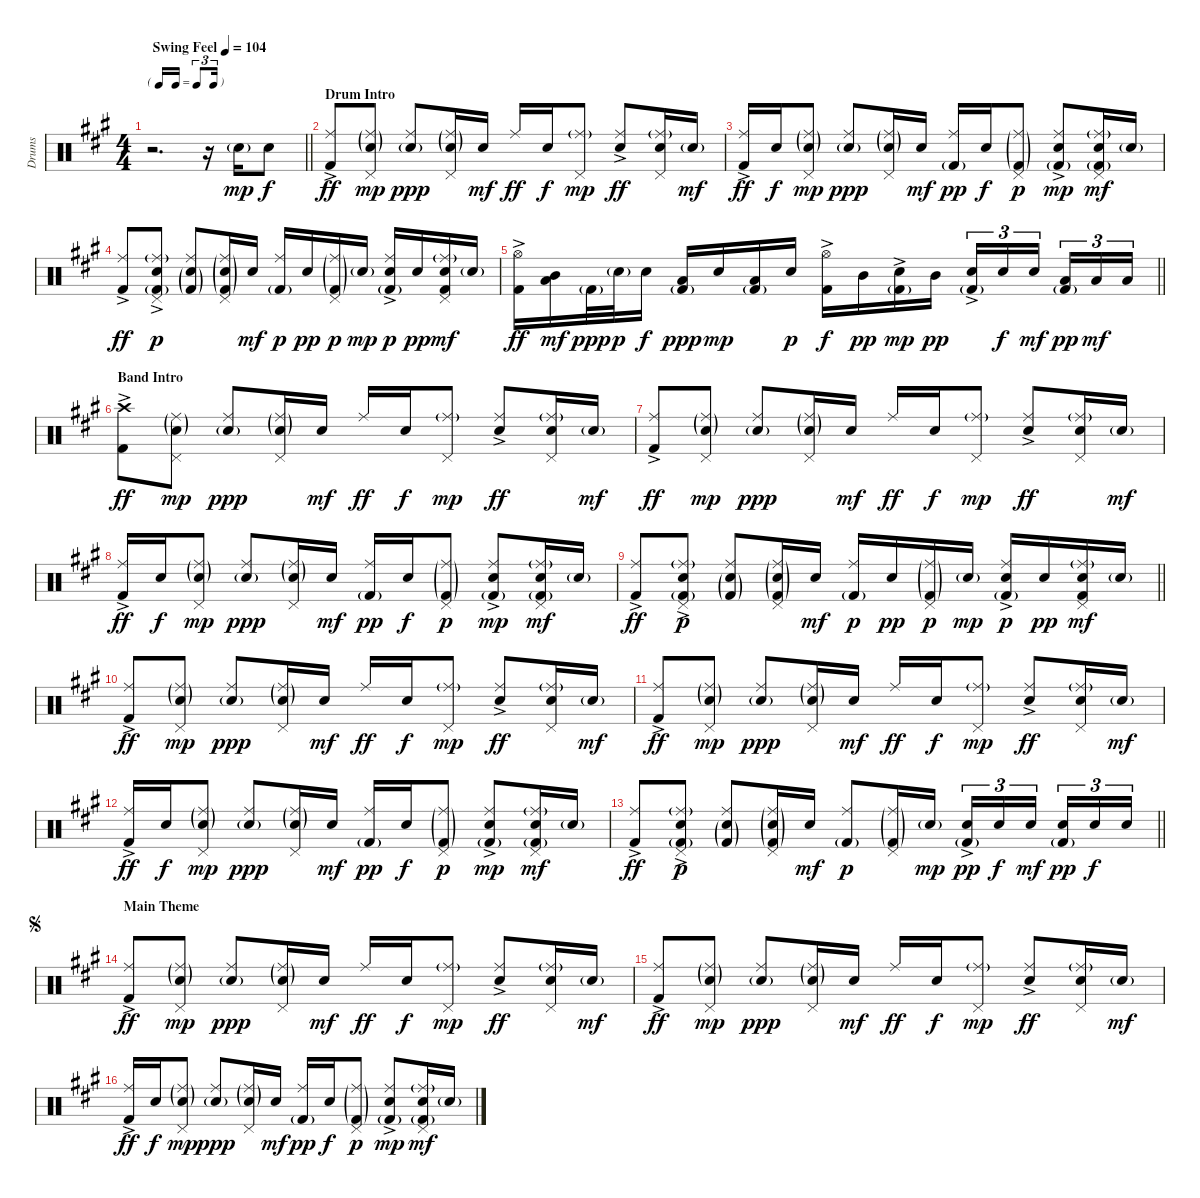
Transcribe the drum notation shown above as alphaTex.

\track ("Drums" "Drums") {instrument percussion}
\staff {score}
\articulation defaults
\ts (4 4)
\tf triplet16th
\tempo (104 "Swing Feel")
\clef neutral
\barLineRight lightlight
\ks a
r.2{d dy mp} r.16 "Snare (hit) 2"{g}.16 "Snare (hit) 2".8{dy f} |
\section ("" "Drum Intro")
("Ride (middle)" "Kick (hit) 2"{ac}).8{dy ff} ("Ride (middle)"{g} "Pedal Hi-Hat (hit)" "Snare (hit) 2"{g}).8{dy mp} ("Ride (middle)" "Snare (hit) 2"{g}).8{dy ppp} ("Ride (middle)"{g} "Pedal Hi-Hat (hit)" "Snare (hit) 2"{g}).16 "Snare (hit) 2".16{dy mf} "Ride (middle)".16{dy ff} "Snare (hit) 2".16{dy f} ("Ride (middle)"{g} "Pedal Hi-Hat (hit)").8{dy mp} ("Ride (middle)" "Snare (hit) 2"{ac}).8{dy ff} ("Ride (middle)"{g} "Pedal Hi-Hat (hit)" "Snare (hit) 2").16 "Snare (hit) 2"{g}.16{dy mf} |
("Ride (middle)" "Kick (hit) 2"{ac}).16{dy ff} "Snare (hit) 2".16{dy f} ("Ride (middle)"{g} "Pedal Hi-Hat (hit)" "Snare (hit) 2"{g}).8{dy mp} ("Ride (middle)" "Snare (hit) 2"{g}).8{dy ppp} ("Ride (middle)"{g} "Pedal Hi-Hat (hit)" "Snare (hit) 2"{g}).16 "Snare (hit) 2".16{dy mf} ("Ride (middle)" "Kick (hit) 2"{g}).16{dy pp} "Snare (hit) 2".16{dy f} ("Ride (middle)"{g} "Pedal Hi-Hat (hit)" "Kick (hit) 2"{g}).8{dy p} ("Ride (middle)" "Snare (hit) 2"{ac} "Kick (hit) 2"{g}).8{dy mp} ("Ride (middle)"{g} "Pedal Hi-Hat (hit)" "Snare (hit) 2" "Kick (hit) 2"{g}).16{dy mf} "Snare (hit) 2"{g}.16 |
("Ride (middle)" "Kick (hit) 2"{ac}).8{dy ff} ("Ride (middle)"{g} "Pedal Hi-Hat (hit)" "Snare (hit) 2"{ac} "Kick (hit) 2"{g}).8{dy p} ("Ride (middle)" "Snare (hit) 2"{g} "Kick (hit) 2"{g}).8 ("Ride (middle)"{g} "Pedal Hi-Hat (hit)" "Snare (hit) 2"{g} "Kick (hit) 2"{g}).16 "Snare (hit) 2".16{dy mf} ("Ride (middle)" "Kick (hit) 2"{g}).16{dy p} "Snare (hit) 2".16{dy pp} ("Ride (middle)"{g} "Pedal Hi-Hat (hit)" "Kick (hit) 2"{g}).16{dy p} "Snare (hit) 2"{g}.16{dy mp} ("Ride (middle)" "Snare (hit) 2"{ac} "Kick (hit) 2"{g}).16{dy p} "Snare (hit) 2".16{dy pp} ("Ride (middle)"{g} "Pedal Hi-Hat (hit)" "Snare (hit) 2" "Kick (hit) 2").16{dy mf} "Snare (hit) 2"{g}.16 |
\barLineRight lightlight
("Hi-Hat (open)" "Kick (hit) 2"{ac}).16{dy ff} ("Mid Tom (hit)" "Low Tom (hit)").16{dy mf} "Kick (hit) 2"{g}.32{dy ppp} "Snare (hit) 2"{g}.32{dy p} "Snare (hit) 2".16{dy f} ("Low Floor Tom (hit)" "Kick (hit) 2"{g}).16{dy ppp} "Snare (hit) 2".16{dy mp} ("Low Tom (hit)" "Kick (hit) 2"{g}).16 "Snare (hit) 2".16{dy p} ("Hi-Hat (open)" "Kick (hit) 2"{ac}).16{dy f} "Mid Tom (hit)".16{dy pp} ("Snare (hit) 2"{ac} "Kick (hit) 2"{g}).16{dy mp} "Mid Tom (hit)".16{dy pp} ("Snare (hit) 2"{ac} "Kick (hit) 2"{g}).16{tu (3 2)} "Snare (hit) 2".16{tu (3 2) dy f} "Snare (hit) 2".16{tu (3 2) dy mf beam splitsecondary} ("Low Tom (hit)" "Kick (hit) 2"{g}).16{tu (3 2) dy pp} "Low Floor Tom (hit)".16{tu (3 2) dy mf} "Low Floor Tom (hit)".16{tu (3 2)} |
\section ("" "Band Intro")
("Crash high (hit)" "Kick (hit) 2"{ac}).8{dy ff} ("Ride (middle)"{g} "Pedal Hi-Hat (hit)" "Snare (hit) 2"{g}).8{dy mp} ("Ride (middle)" "Snare (hit) 2"{g}).8{dy ppp} ("Ride (middle)"{g} "Pedal Hi-Hat (hit)" "Snare (hit) 2"{g}).16 "Snare (hit) 2".16{dy mf} "Ride (middle)".16{dy ff} "Snare (hit) 2".16{dy f} ("Ride (middle)"{g} "Pedal Hi-Hat (hit)").8{dy mp} ("Ride (middle)" "Snare (hit) 2"{ac}).8{dy ff} ("Ride (middle)"{g} "Pedal Hi-Hat (hit)" "Snare (hit) 2").16 "Snare (hit) 2"{g}.16{dy mf} |
("Ride (middle)" "Kick (hit) 2"{ac}).8{dy ff} ("Ride (middle)"{g} "Pedal Hi-Hat (hit)" "Snare (hit) 2"{g}).8{dy mp} ("Ride (middle)" "Snare (hit) 2"{g}).8{dy ppp} ("Ride (middle)"{g} "Pedal Hi-Hat (hit)" "Snare (hit) 2"{g}).16 "Snare (hit) 2".16{dy mf} "Ride (middle)".16{dy ff} "Snare (hit) 2".16{dy f} ("Ride (middle)"{g} "Pedal Hi-Hat (hit)").8{dy mp} ("Ride (middle)" "Snare (hit) 2"{ac}).8{dy ff} ("Ride (middle)"{g} "Pedal Hi-Hat (hit)" "Snare (hit) 2").16 "Snare (hit) 2"{g}.16{dy mf} |
("Ride (middle)" "Kick (hit) 2"{ac}).16{dy ff} "Snare (hit) 2".16{dy f} ("Ride (middle)"{g} "Pedal Hi-Hat (hit)" "Snare (hit) 2"{g}).8{dy mp} ("Ride (middle)" "Snare (hit) 2"{g}).8{dy ppp} ("Ride (middle)"{g} "Pedal Hi-Hat (hit)" "Snare (hit) 2"{g}).16 "Snare (hit) 2".16{dy mf} ("Ride (middle)" "Kick (hit) 2"{g}).16{dy pp} "Snare (hit) 2".16{dy f} ("Ride (middle)"{g} "Pedal Hi-Hat (hit)" "Kick (hit) 2"{g}).8{dy p} ("Ride (middle)" "Snare (hit) 2"{ac} "Kick (hit) 2"{g}).8{dy mp} ("Ride (middle)"{g} "Pedal Hi-Hat (hit)" "Snare (hit) 2" "Kick (hit) 2"{g}).16{dy mf} "Snare (hit) 2"{g}.16 |
\barLineRight lightlight
("Ride (middle)" "Kick (hit) 2"{ac}).8{dy ff} ("Ride (middle)"{g} "Pedal Hi-Hat (hit)" "Snare (hit) 2"{ac} "Kick (hit) 2"{g}).8{dy p} ("Ride (middle)" "Snare (hit) 2"{g} "Kick (hit) 2"{g}).8 ("Ride (middle)"{g} "Pedal Hi-Hat (hit)" "Snare (hit) 2"{g} "Kick (hit) 2"{g}).16 "Snare (hit) 2".16{dy mf} ("Ride (middle)" "Kick (hit) 2"{g}).16{dy p} "Snare (hit) 2".16{dy pp} ("Ride (middle)"{g} "Pedal Hi-Hat (hit)" "Kick (hit) 2"{g}).16{dy p} "Snare (hit) 2"{g}.16{dy mp} ("Ride (middle)" "Snare (hit) 2"{ac} "Kick (hit) 2"{g}).16{dy p} "Snare (hit) 2".16{dy pp} ("Ride (middle)"{g} "Pedal Hi-Hat (hit)" "Snare (hit) 2" "Kick (hit) 2").16{dy mf} "Snare (hit) 2"{g}.16 |
("Ride (middle)" "Kick (hit) 2"{ac}).8{dy ff} ("Ride (middle)"{g} "Pedal Hi-Hat (hit)" "Snare (hit) 2"{g}).8{dy mp} ("Ride (middle)" "Snare (hit) 2"{g}).8{dy ppp} ("Ride (middle)"{g} "Pedal Hi-Hat (hit)" "Snare (hit) 2"{g}).16 "Snare (hit) 2".16{dy mf} "Ride (middle)".16{dy ff} "Snare (hit) 2".16{dy f} ("Ride (middle)"{g} "Pedal Hi-Hat (hit)").8{dy mp} ("Ride (middle)" "Snare (hit) 2"{ac}).8{dy ff} ("Ride (middle)"{g} "Pedal Hi-Hat (hit)" "Snare (hit) 2").16 "Snare (hit) 2"{g}.16{dy mf} |
("Ride (middle)" "Kick (hit) 2"{ac}).8{dy ff} ("Ride (middle)"{g} "Pedal Hi-Hat (hit)" "Snare (hit) 2"{g}).8{dy mp} ("Ride (middle)" "Snare (hit) 2"{g}).8{dy ppp} ("Ride (middle)"{g} "Pedal Hi-Hat (hit)" "Snare (hit) 2"{g}).16 "Snare (hit) 2".16{dy mf} "Ride (middle)".16{dy ff} "Snare (hit) 2".16{dy f} ("Ride (middle)"{g} "Pedal Hi-Hat (hit)").8{dy mp} ("Ride (middle)" "Snare (hit) 2"{ac}).8{dy ff} ("Ride (middle)"{g} "Pedal Hi-Hat (hit)" "Snare (hit) 2").16 "Snare (hit) 2"{g}.16{dy mf} |
("Ride (middle)" "Kick (hit) 2"{ac}).16{dy ff} "Snare (hit) 2".16{dy f} ("Ride (middle)"{g} "Pedal Hi-Hat (hit)" "Snare (hit) 2"{g}).8{dy mp} ("Ride (middle)" "Snare (hit) 2"{g}).8{dy ppp} ("Ride (middle)"{g} "Pedal Hi-Hat (hit)" "Snare (hit) 2"{g}).16 "Snare (hit) 2".16{dy mf} ("Ride (middle)" "Kick (hit) 2"{g}).16{dy pp} "Snare (hit) 2".16{dy f} ("Ride (middle)"{g} "Pedal Hi-Hat (hit)" "Kick (hit) 2"{g}).8{dy p} ("Ride (middle)" "Snare (hit) 2"{ac} "Kick (hit) 2"{g}).8{dy mp} ("Ride (middle)"{g} "Pedal Hi-Hat (hit)" "Snare (hit) 2" "Kick (hit) 2"{g}).16{dy mf} "Snare (hit) 2"{g}.16 |
\barLineRight lightlight
("Ride (middle)" "Kick (hit) 2"{ac}).8{dy ff} ("Ride (middle)"{g} "Pedal Hi-Hat (hit)" "Snare (hit) 2"{ac} "Kick (hit) 2"{g}).8{dy p} ("Ride (middle)" "Snare (hit) 2"{g} "Kick (hit) 2"{g}).8 ("Ride (middle)"{g} "Pedal Hi-Hat (hit)" "Snare (hit) 2"{g} "Kick (hit) 2"{g}).16 "Snare (hit) 2".16{dy mf} ("Ride (middle)" "Kick (hit) 2"{g}).8{dy p} ("Ride (middle)"{g} "Pedal Hi-Hat (hit)" "Kick (hit) 2"{g}).16 "Snare (hit) 2"{g}.16{dy mp} ("Snare (hit) 2"{ac} "Kick (hit) 2"{g}).16{tu (3 2) dy pp} "Snare (hit) 2".16{tu (3 2) dy f} "Snare (hit) 2".16{tu (3 2) dy mf beam splitsecondary} ("Snare (hit) 2" "Kick (hit) 2"{g}).16{tu (3 2) dy pp} "Snare (hit) 2".16{tu (3 2) dy f} "Snare (hit) 2".16{tu (3 2)} |
\section ("" "Main Theme")
\jump segno
("Ride (middle)" "Kick (hit) 2"{ac}).8{dy ff} ("Ride (middle)"{g} "Pedal Hi-Hat (hit)" "Snare (hit) 2"{g}).8{dy mp} ("Ride (middle)" "Snare (hit) 2"{g}).8{dy ppp} ("Ride (middle)"{g} "Pedal Hi-Hat (hit)" "Snare (hit) 2"{g}).16 "Snare (hit) 2".16{dy mf} "Ride (middle)".16{dy ff} "Snare (hit) 2".16{dy f} ("Ride (middle)"{g} "Pedal Hi-Hat (hit)").8{dy mp} ("Ride (middle)" "Snare (hit) 2"{ac}).8{dy ff} ("Ride (middle)"{g} "Pedal Hi-Hat (hit)" "Snare (hit) 2").16 "Snare (hit) 2"{g}.16{dy mf} |
("Ride (middle)" "Kick (hit) 2"{ac}).8{dy ff} ("Ride (middle)"{g} "Pedal Hi-Hat (hit)" "Snare (hit) 2"{g}).8{dy mp} ("Ride (middle)" "Snare (hit) 2"{g}).8{dy ppp} ("Ride (middle)"{g} "Pedal Hi-Hat (hit)" "Snare (hit) 2"{g}).16 "Snare (hit) 2".16{dy mf} "Ride (middle)".16{dy ff} "Snare (hit) 2".16{dy f} ("Ride (middle)"{g} "Pedal Hi-Hat (hit)").8{dy mp} ("Ride (middle)" "Snare (hit) 2"{ac}).8{dy ff} ("Ride (middle)"{g} "Pedal Hi-Hat (hit)" "Snare (hit) 2").16 "Snare (hit) 2"{g}.16{dy mf} |
("Ride (middle)" "Kick (hit) 2"{ac}).16{dy ff} "Snare (hit) 2".16{dy f} ("Ride (middle)"{g} "Pedal Hi-Hat (hit)" "Snare (hit) 2"{g}).8{dy mp} ("Ride (middle)" "Snare (hit) 2"{g}).8{dy ppp} ("Ride (middle)"{g} "Pedal Hi-Hat (hit)" "Snare (hit) 2"{g}).16 "Snare (hit) 2".16{dy mf} ("Ride (middle)" "Kick (hit) 2"{g}).16{dy pp} "Snare (hit) 2".16{dy f} ("Ride (middle)"{g} "Pedal Hi-Hat (hit)" "Kick (hit) 2"{g}).8{dy p} ("Ride (middle)" "Snare (hit) 2"{ac} "Kick (hit) 2"{g}).8{dy mp} ("Ride (middle)"{g} "Pedal Hi-Hat (hit)" "Snare (hit) 2" "Kick (hit) 2"{g}).16{dy mf} "Snare (hit) 2"{g}.16
